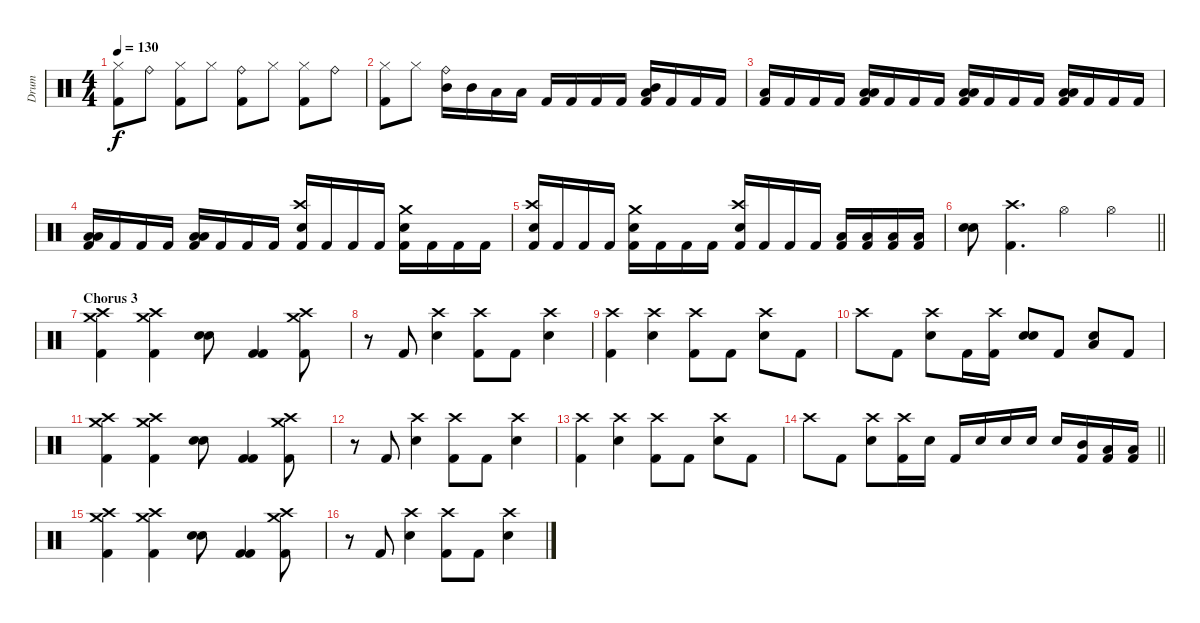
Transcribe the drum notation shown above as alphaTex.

\track ("Drum" "Drum") {instrument percussion}
\staff {score}
\articulation defaults
\ts (4 4)
\tempo 130
\clef neutral
\ks c
("Hi-Hat (closed)" "Kick (hit) 2").8{dy f} "Ride (bell)".8 ("Hi-Hat (closed)" "Kick (hit) 2").8 "Hi-Hat (closed)".8 ("Ride (bell)" "Kick (hit) 2").8 "Hi-Hat (closed)".8 ("Hi-Hat (closed)" "Kick (hit) 2").8 "Ride (bell)".8 |
("Hi-Hat (closed)" "Kick (hit) 2").8 "Hi-Hat (closed)".8 ("Ride (bell)" "Mid Tom (hit)").16 "Mid Tom (hit)".16 "Low Tom (hit)".16 "Low Tom (hit)".16 "Kick (hit) 2".16 "Kick (hit) 2".16 "Kick (hit) 2".16 "Kick (hit) 2".16 ("Mid Tom (hit)" "Low Tom (hit)" "Kick (hit) 2").16 "Kick (hit) 2".16 "Kick (hit) 2".16 "Kick (hit) 2".16 |
("Low Floor Tom (hit)" "Kick (hit) 2").16 "Kick (hit) 2".16 "Kick (hit) 2".16 "Kick (hit) 2".16 ("Low Tom (hit)" "Low Floor Tom (hit)" "Kick (hit) 2").16 "Kick (hit) 2".16 "Kick (hit) 2".16 "Kick (hit) 2".16 ("Low Tom (hit)" "Low Floor Tom (hit)" "Kick (hit) 2").16 "Kick (hit) 2".16 "Kick (hit) 2".16 "Kick (hit) 2".16 ("Low Tom (hit)" "Low Floor Tom (hit)" "Kick (hit) 2").16 "Kick (hit) 2".16 "Kick (hit) 2".16 "Kick (hit) 2".16 |
("Low Tom (hit)" "Low Floor Tom (hit)" "Kick (hit) 2").16 "Kick (hit) 2".16 "Kick (hit) 2".16 "Kick (hit) 2".16 ("Low Tom (hit)" "Low Floor Tom (hit)" "Kick (hit) 2").16 "Kick (hit) 2".16 "Kick (hit) 2".16 "Kick (hit) 2".16 ("Crash high (hit)" "Electric Snare (hit)" "Kick (hit) 2").16 "Kick (hit) 2".16 "Kick (hit) 2".16 "Kick (hit) 2".16 ("Crash medium (hit)" "Electric Snare (hit)" "Kick (hit) 2").16 "Kick (hit) 2".16 "Kick (hit) 2".16 "Kick (hit) 2".16 |
("Crash high (hit)" "Electric Snare (hit)" "Kick (hit) 2").16 "Kick (hit) 2".16 "Kick (hit) 2".16 "Kick (hit) 2".16 ("Crash medium (hit)" "Electric Snare (hit)" "Kick (hit) 2").16 "Kick (hit) 2".16 "Kick (hit) 2".16 "Kick (hit) 2".16 ("Crash high (hit)" "Electric Snare (hit)" "Kick (hit) 2").16 "Kick (hit) 2".16 "Kick (hit) 2".16 "Kick (hit) 2".16 ("Low Tom (hit)" "Kick (hit) 2").16 ("Low Tom (hit)" "Kick (hit) 2").16 ("Low Floor Tom (hit)" "Kick (hit) 2").16 ("Low Floor Tom (hit)" "Kick (hit) 2").16 |
\barLineRight lightlight
("Electric Snare (hit)" "Snare (hit) 2").8 ("Crash high (hit)" "Kick (hit) 2").4{d} "Hi-Hat (open)".4 "Hi-Hat (open)".4 |
\section ("" "Chorus 3")
("Crash high (hit)" "Crash medium (hit)" "Kick (hit) 2").4 ("Crash high (hit)" "Crash medium (hit)" "Kick (hit) 2").4 ("Electric Snare (hit)" "Electric Snare (hit)").8 ("Kick (hit) 2" "Kick (hit) 2").4 ("Crash high (hit)" "Crash medium (hit)" "Kick (hit) 2").8 |
r.8 "Kick (hit) 2".8 ("Crash high (hit)" "Electric Snare (hit)").4 ("Crash high (hit)" "Kick (hit) 2").8 "Kick (hit) 2".8 ("Crash high (hit)" "Electric Snare (hit)").4 |
("Crash high (hit)" "Kick (hit) 2").4 ("Crash high (hit)" "Electric Snare (hit)").4 ("Crash high (hit)" "Kick (hit) 2").8 "Kick (hit) 2".8 ("Crash high (hit)" "Electric Snare (hit)").8 "Kick (hit) 2".8 |
"Crash high (hit)".8 "Kick (hit) 2".8 ("Crash high (hit)" "Electric Snare (hit)").8 "Kick (hit) 2".16 ("Crash high (hit)" "Kick (hit) 2").16 ("Snare (hit) 2" "Electric Snare (hit)").8 "Kick (hit) 2".8 ("Low Floor Tom (hit)" "Electric Snare (hit)").8 "Kick (hit) 2".8 |
("Crash high (hit)" "Crash medium (hit)" "Kick (hit) 2").4 ("Crash high (hit)" "Crash medium (hit)" "Kick (hit) 2").4 ("Electric Snare (hit)" "Electric Snare (hit)").8 ("Kick (hit) 2" "Kick (hit) 2").4 ("Crash high (hit)" "Crash medium (hit)" "Kick (hit) 2").8 |
r.8 "Kick (hit) 2".8 ("Crash high (hit)" "Electric Snare (hit)").4 ("Crash high (hit)" "Kick (hit) 2").8 "Kick (hit) 2".8 ("Crash high (hit)" "Electric Snare (hit)").4 |
("Crash high (hit)" "Kick (hit) 2").4 ("Crash high (hit)" "Electric Snare (hit)").4 ("Crash high (hit)" "Kick (hit) 2").8 "Kick (hit) 2".8 ("Crash high (hit)" "Electric Snare (hit)").8 "Kick (hit) 2".8 |
\barLineRight lightlight "Crash high (hit)".8 "Kick (hit) 2".8
("Crash high (hit)" "Electric Snare (hit)").8 ("Crash high (hit)" "Kick (hit) 2").16 "Electric Snare (hit)".16 "Kick (hit) 2".16 "Electric Snare (hit)".16 "Electric Snare (hit)".16 "Electric Snare (hit)".16 "Electric Snare (hit)".16 ("Mid Tom (hit)" "Kick (hit) 2").16 ("Low Tom (hit)" "Kick (hit) 2").16 ("Low Tom (hit)" "Kick (hit) 2").16 |
("Crash high (hit)" "Crash medium (hit)" "Kick (hit) 2").4 ("Crash high (hit)" "Crash medium (hit)" "Kick (hit) 2").4 ("Electric Snare (hit)" "Electric Snare (hit)").8 ("Kick (hit) 2" "Kick (hit) 2").4 ("Crash high (hit)" "Crash medium (hit)" "Kick (hit) 2").8 |
r.8 "Kick (hit) 2".8 ("Crash high (hit)" "Electric Snare (hit)").4 ("Crash high (hit)" "Kick (hit) 2").8 "Kick (hit) 2".8 ("Crash high (hit)" "Electric Snare (hit)").4
